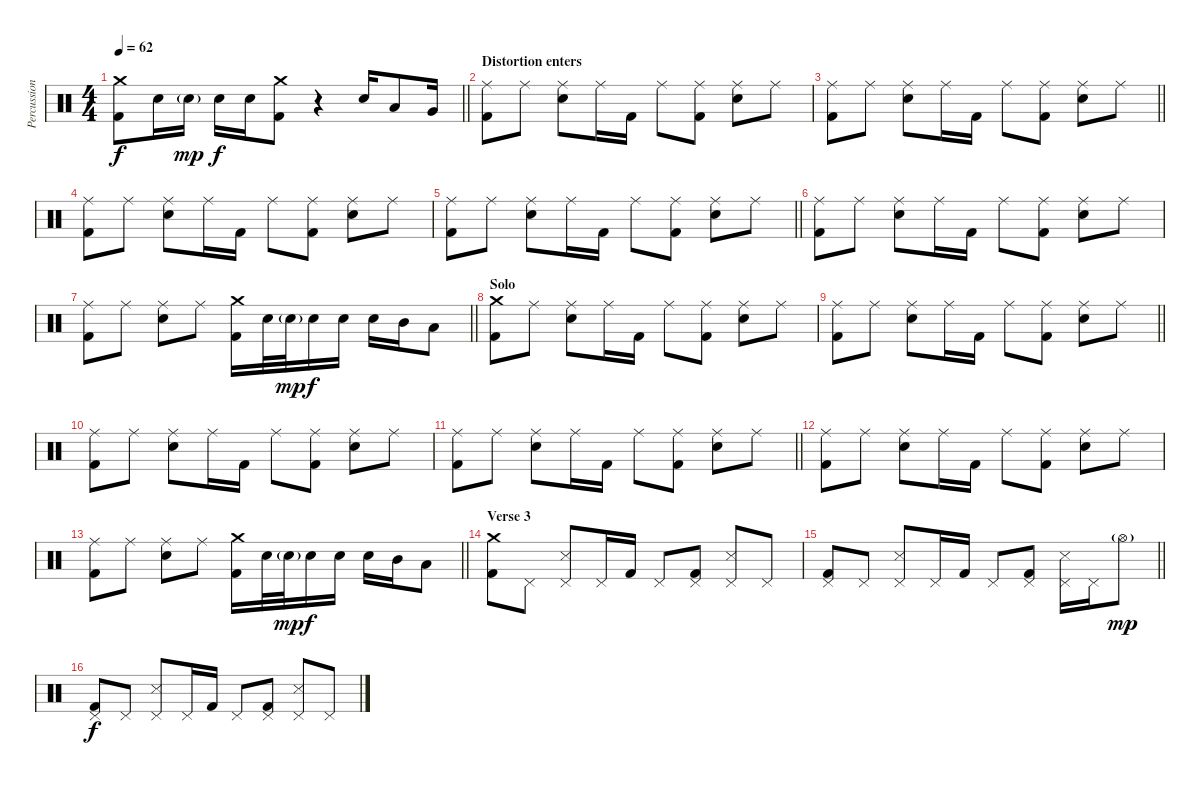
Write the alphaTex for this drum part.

\track ("Percussion" "Percussion") {instrument percussion}
\staff {score}
\articulation defaults
\ts (4 4)
\tempo 62
\clef neutral
\barLineRight lightlight
\ks c
("Crash medium (hit)" "Kick (hit) 2").8{dy f} "Electric Snare (hit)".16 "Electric Snare (hit)"{g}.16{dy mp} "Electric Snare (hit)".16{dy f} "Electric Snare (hit)".16 ("Crash medium (hit)" "Kick (hit) 2").8 r.4 "Electric Snare (hit)".16 "Low Tom (hit)".8 "Very Low Tom (hit)".16 |
\section ("" "Distortion enters")
("Ride (middle)" "Kick (hit) 2").8 "Ride (middle)".8 ("Ride (middle)" "Electric Snare (hit)").8 "Ride (middle)".16 "Kick (hit) 2".16 "Ride (middle)".8 ("Ride (middle)" "Kick (hit) 2").8 ("Ride (middle)" "Electric Snare (hit)").8 "Ride (middle)".8 |
\barLineRight lightlight
("Ride (middle)" "Kick (hit) 2").8 "Ride (middle)".8 ("Ride (middle)" "Electric Snare (hit)").8 "Ride (middle)".16 "Kick (hit) 2".16 "Ride (middle)".8 ("Ride (middle)" "Kick (hit) 2").8 ("Ride (middle)" "Electric Snare (hit)").8 "Ride (middle)".8 |
("Ride (middle)" "Kick (hit) 2").8 "Ride (middle)".8 ("Ride (middle)" "Electric Snare (hit)").8 "Ride (middle)".16 "Kick (hit) 2".16 "Ride (middle)".8 ("Ride (middle)" "Kick (hit) 2").8 ("Ride (middle)" "Electric Snare (hit)").8 "Ride (middle)".8 |
\barLineRight lightlight
("Ride (middle)" "Kick (hit) 2").8 "Ride (middle)".8 ("Ride (middle)" "Electric Snare (hit)").8 "Ride (middle)".16 "Kick (hit) 2".16 "Ride (middle)".8 ("Ride (middle)" "Kick (hit) 2").8 ("Ride (middle)" "Electric Snare (hit)").8 "Ride (middle)".8 |
("Ride (middle)" "Kick (hit) 2").8 "Ride (middle)".8 ("Ride (middle)" "Electric Snare (hit)").8 "Ride (middle)".16 "Kick (hit) 2".16 "Ride (middle)".8 ("Ride (middle)" "Kick (hit) 2").8 ("Ride (middle)" "Electric Snare (hit)").8 "Ride (middle)".8 |
\barLineRight lightlight
("Ride (middle)" "Kick (hit) 2").8 "Ride (middle)".8 ("Ride (middle)" "Electric Snare (hit)").8 "Ride (middle)".8 ("Crash medium (hit)" "Kick (hit) 2").16 "Electric Snare (hit)".32 "Electric Snare (hit)"{g}.32{dy mp} "Electric Snare (hit)".16{dy f} "Electric Snare (hit)".16 "Electric Snare (hit)".16 "Mid Tom (hit)".16 "Low Tom (hit)".8 |
\section ("" "Solo")
("Crash medium (hit)" "Kick (hit) 2").8 "Ride (middle)".8 ("Ride (middle)" "Electric Snare (hit)").8 "Ride (middle)".16 "Kick (hit) 2".16 "Ride (middle)".8 ("Ride (middle)" "Kick (hit) 2").8 ("Ride (middle)" "Electric Snare (hit)").8 "Ride (middle)".8 |
\barLineRight lightlight
("Ride (middle)" "Kick (hit) 2").8 "Ride (middle)".8 ("Ride (middle)" "Electric Snare (hit)").8 "Ride (middle)".16 "Kick (hit) 2".16 "Ride (middle)".8 ("Ride (middle)" "Kick (hit) 2").8 ("Ride (middle)" "Electric Snare (hit)").8 "Ride (middle)".8 |
("Ride (middle)" "Kick (hit) 2").8 "Ride (middle)".8 ("Ride (middle)" "Electric Snare (hit)").8 "Ride (middle)".16 "Kick (hit) 2".16 "Ride (middle)".8 ("Ride (middle)" "Kick (hit) 2").8 ("Ride (middle)" "Electric Snare (hit)").8 "Ride (middle)".8 |
\barLineRight lightlight
("Ride (middle)" "Kick (hit) 2").8 "Ride (middle)".8 ("Ride (middle)" "Electric Snare (hit)").8 "Ride (middle)".16 "Kick (hit) 2".16 "Ride (middle)".8 ("Ride (middle)" "Kick (hit) 2").8 ("Ride (middle)" "Electric Snare (hit)").8 "Ride (middle)".8 |
("Ride (middle)" "Kick (hit) 2").8 "Ride (middle)".8 ("Ride (middle)" "Electric Snare (hit)").8 "Ride (middle)".16 "Kick (hit) 2".16 "Ride (middle)".8 ("Ride (middle)" "Kick (hit) 2").8 ("Ride (middle)" "Electric Snare (hit)").8 "Ride (middle)".8 |
\barLineRight lightlight
("Ride (middle)" "Kick (hit) 2").8 "Ride (middle)".8 ("Ride (middle)" "Electric Snare (hit)").8 "Ride (middle)".8 ("Crash medium (hit)" "Kick (hit) 2").16 "Electric Snare (hit)".32 "Electric Snare (hit)"{g}.32{dy mp} "Electric Snare (hit)".16{dy f} "Electric Snare (hit)".16 "Electric Snare (hit)".16 "Mid Tom (hit)".16 "Low Tom (hit)".8 |
\section ("" "Verse 3")
("Crash medium (hit)" "Kick (hit) 2").8 "Pedal Hi-Hat (hit)".8 ("Pedal Hi-Hat (hit)" "Snare (side stick) 3").8 "Pedal Hi-Hat (hit)".16 "Kick (hit) 2".16 "Pedal Hi-Hat (hit)".8 ("Pedal Hi-Hat (hit)" "Kick (hit) 2").8 ("Pedal Hi-Hat (hit)" "Snare (side stick) 3").8 "Pedal Hi-Hat (hit)".8 |
\barLineRight lightlight
("Pedal Hi-Hat (hit)" "Kick (hit) 2").8 "Pedal Hi-Hat (hit)".8 ("Pedal Hi-Hat (hit)" "Snare (side stick) 3").8 "Pedal Hi-Hat (hit)".16 "Kick (hit) 2".16 "Pedal Hi-Hat (hit)".8 ("Pedal Hi-Hat (hit)" "Kick (hit) 2").8 ("Pedal Hi-Hat (hit)" "Snare (side stick) 3").16 "Pedal Hi-Hat (hit)".16 "Hi-Hat (open)"{g}.8{dy mp} |
("Pedal Hi-Hat (hit)" "Kick (hit) 2").8{dy f} "Pedal Hi-Hat (hit)".8 ("Pedal Hi-Hat (hit)" "Snare (side stick) 3").8 "Pedal Hi-Hat (hit)".16 "Kick (hit) 2".16 "Pedal Hi-Hat (hit)".8 ("Pedal Hi-Hat (hit)" "Kick (hit) 2").8 ("Pedal Hi-Hat (hit)" "Snare (side stick) 3").8 "Pedal Hi-Hat (hit)".8
